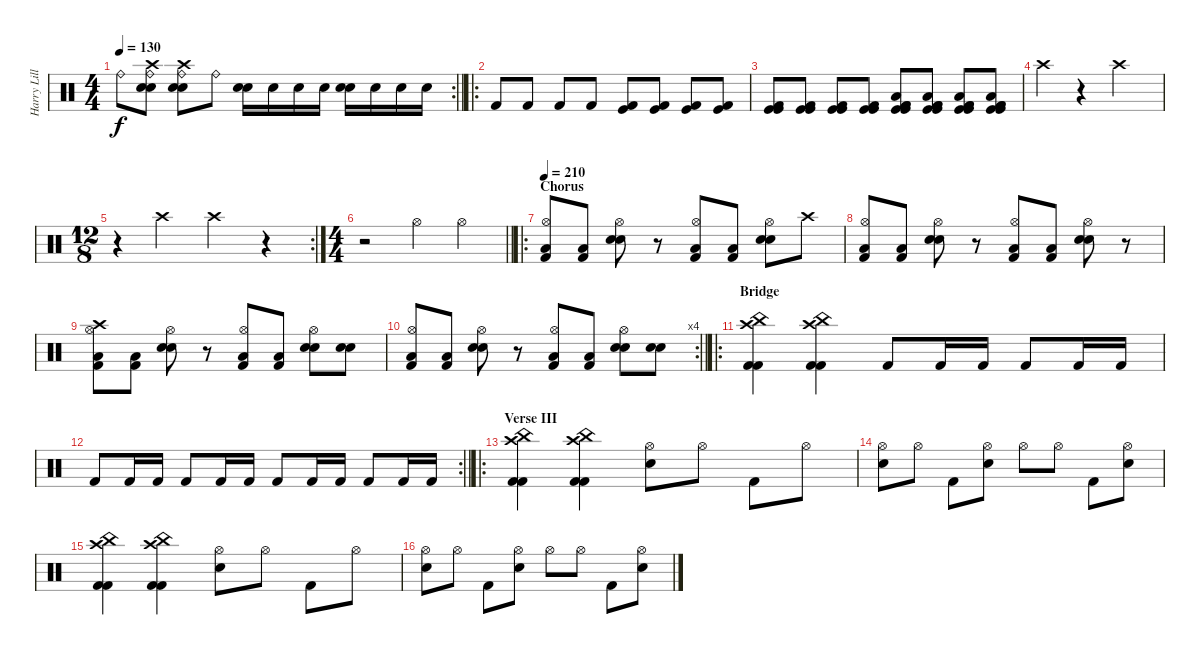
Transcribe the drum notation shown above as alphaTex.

\track ("Harry Lillevars" "Harry Lill") {instrument percussion}
\staff {score}
\articulation defaults
\rc 2
\ts (4 4)
\tempo 130
\clef neutral
\barLineRight lightlight
\ks c "Ride (bell)".8{dy f}
("Crash high (hit)" "Ride (bell)" "Electric Snare (hit)" "Snare (hit) 2").8 ("Crash high (hit)" "Ride (bell)" "Electric Snare (hit)" "Snare (hit) 2").8 "Ride (bell)".8 ("Snare (hit) 2" "Electric Snare (hit)").16 "Electric Snare (hit)".16 "Electric Snare (hit)".16 "Electric Snare (hit)".16 ("Snare (hit) 2" "Electric Snare (hit)").16 "Electric Snare (hit)".16 "Electric Snare (hit)".16 "Electric Snare (hit)".16 |
\ro
\section ("" "")
"Kick (hit) 2".8 "Kick (hit) 2".8 "Kick (hit) 2".8 "Kick (hit) 2".8 ("Kick (hit)" "Kick (hit) 2").8 ("Kick (hit)" "Kick (hit) 2").8 ("Kick (hit)" "Kick (hit) 2").8 ("Kick (hit)" "Kick (hit) 2").8 |
("Kick (hit)" "Kick (hit)" "Kick (hit) 2").8 ("Kick (hit)" "Kick (hit)" "Kick (hit) 2").8 ("Kick (hit)" "Kick (hit)" "Kick (hit) 2").8 ("Kick (hit)" "Kick (hit)" "Kick (hit) 2").8 ("Low Tom (hit)" "Kick (hit) 2" "Kick (hit)" "Kick (hit)" "Kick (hit) 2").8 ("Low Tom (hit)" "Kick (hit) 2" "Kick (hit)" "Kick (hit)" "Kick (hit) 2").8 ("Low Tom (hit)" "Kick (hit) 2" "Kick (hit)" "Kick (hit)" "Kick (hit) 2").8 ("Low Tom (hit)" "Kick (hit) 2" "Kick (hit)" "Kick (hit)" "Kick (hit) 2").8 |
"Crash high (hit)".4 r.4 "Crash high (hit)".2 |
\rc 2
\ts (12 8)
r.4 "Crash high (hit)".2 "Crash high (hit)".2 r.4 |
\ts (4 4)
\barLineRight lightlight
r.2 "Hi-Hat (open)".4 "Hi-Hat (open)".4 |
\ro
\section ("" "Chorus")
\tempo 210
("Hi-Hat (open)" "Kick (hit) 2" "Low Floor Tom (hit)").8 ("Kick (hit) 2" "Low Floor Tom (hit)").8 ("Hi-Hat (open)" "Electric Snare (hit)" "Electric Snare (hit)").8 r.8 ("Hi-Hat (open)" "Kick (hit) 2" "Low Floor Tom (hit)").8 ("Kick (hit) 2" "Low Floor Tom (hit)").8 ("Hi-Hat (open)" "Electric Snare (hit)" "Electric Snare (hit)").8 "Crash high (hit)".8 |
("Hi-Hat (open)" "Kick (hit) 2" "Low Floor Tom (hit)").8 ("Kick (hit) 2" "Low Floor Tom (hit)").8 ("Hi-Hat (open)" "Electric Snare (hit)" "Electric Snare (hit)").8 r.8 ("Hi-Hat (open)" "Kick (hit) 2" "Low Floor Tom (hit)").8 ("Kick (hit) 2" "Low Floor Tom (hit)").8 ("Hi-Hat (open)" "Electric Snare (hit)" "Electric Snare (hit)").8 r.8 |
("Hi-Hat (open)" "Crash high (hit)" "Kick (hit) 2" "Low Floor Tom (hit)").8 ("Kick (hit) 2" "Low Floor Tom (hit)").8 ("Hi-Hat (open)" "Electric Snare (hit)" "Electric Snare (hit)").8 r.8 ("Hi-Hat (open)" "Kick (hit) 2" "Low Floor Tom (hit)").8 ("Kick (hit) 2" "Low Floor Tom (hit)").8 ("Hi-Hat (open)" "Electric Snare (hit)" "Electric Snare (hit)").8 ("Electric Snare (hit)" "Electric Snare (hit)").8 |
\rc 4
\barLineRight lightlight
("Hi-Hat (open)" "Kick (hit) 2" "Low Floor Tom (hit)").8 ("Kick (hit) 2" "Low Floor Tom (hit)").8 ("Hi-Hat (open)" "Electric Snare (hit)" "Electric Snare (hit)").8 r.8 ("Hi-Hat (open)" "Kick (hit) 2" "Low Floor Tom (hit)").8 ("Kick (hit) 2" "Low Floor Tom (hit)").8 ("Hi-Hat (open)" "Electric Snare (hit)" "Electric Snare (hit)").8 ("Electric Snare (hit)" "Electric Snare (hit)").8 |
\ro
\section ("" "Bridge")
("Kick (hit) 2" "Crash high (hit)" "China (hit)" "Kick (hit) 2").4 ("Kick (hit) 2" "Crash high (hit)" "China (hit)" "Kick (hit) 2").4 "Kick (hit) 2".8 "Kick (hit) 2".16 "Kick (hit) 2".16 "Kick (hit) 2".8 "Kick (hit) 2".16 "Kick (hit) 2".16 |
\rc 2
\barLineRight lightlight "Kick (hit) 2".8 "Kick (hit) 2".16 "Kick (hit) 2".16 "Kick (hit) 2".8 "Kick (hit) 2".16 "Kick (hit) 2".16 "Kick (hit) 2".8 "Kick (hit) 2".16 "Kick (hit) 2".16 "Kick (hit) 2".8 "Kick (hit) 2".16 "Kick (hit) 2".16
|
\ro
\section ("" "Verse III")
("Kick (hit) 2" "Crash high (hit)" "China (hit)" "Kick (hit) 2").4 ("Kick (hit) 2" "Crash high (hit)" "China (hit)" "Kick (hit) 2").4 ("Hi-Hat (open)" "Electric Snare (hit)").8 "Hi-Hat (open)".8 "Kick (hit) 2".8 "Hi-Hat (open)".8 |
("Hi-Hat (open)" "Electric Snare (hit)").8 "Hi-Hat (open)".8 "Kick (hit) 2".8 ("Hi-Hat (open)" "Electric Snare (hit)").8 "Hi-Hat (open)".8 "Hi-Hat (open)".8 "Kick (hit) 2".8 ("Hi-Hat (open)" "Electric Snare (hit)").8 |
("Kick (hit) 2" "Crash high (hit)" "China (hit)" "Kick (hit) 2").4 ("Kick (hit) 2" "Crash high (hit)" "China (hit)" "Kick (hit) 2").4 ("Hi-Hat (open)" "Electric Snare (hit)").8 "Hi-Hat (open)".8 "Kick (hit) 2".8 "Hi-Hat (open)".8 |
("Hi-Hat (open)" "Electric Snare (hit)").8 "Hi-Hat (open)".8 "Kick (hit) 2".8 ("Hi-Hat (open)" "Electric Snare (hit)").8 "Hi-Hat (open)".8 "Hi-Hat (open)".8 "Kick (hit) 2".8 ("Hi-Hat (open)" "Electric Snare (hit)").8
